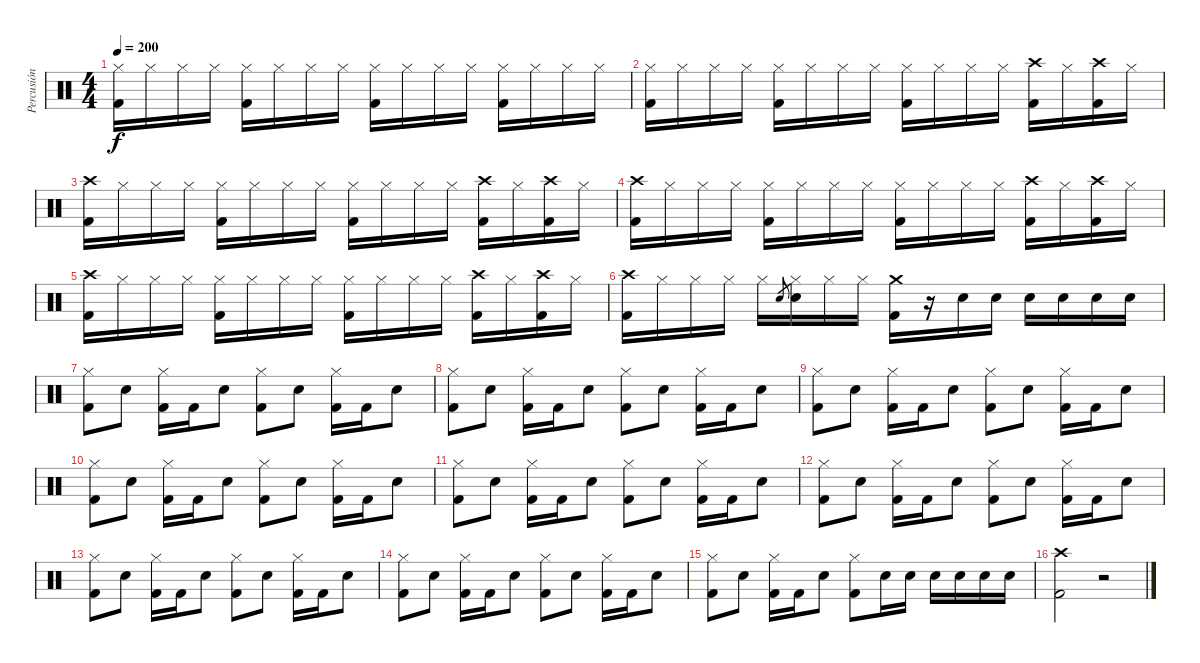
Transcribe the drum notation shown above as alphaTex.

\track ("Percusión" "Percusión") {instrument percussion}
\staff {score}
\articulation defaults
\ts (4 4)
\tempo 200
\clef neutral
\ks c
("Hi-Hat (closed)" "Kick (hit) 2").16{dy f} "Hi-Hat (closed)".16 "Hi-Hat (closed)".16 "Hi-Hat (closed)".16 ("Hi-Hat (closed)" "Kick (hit) 2").16 "Hi-Hat (closed)".16 "Hi-Hat (closed)".16 "Hi-Hat (closed)".16 ("Hi-Hat (closed)" "Kick (hit) 2").16 "Hi-Hat (closed)".16 "Hi-Hat (closed)".16 "Hi-Hat (closed)".16 ("Hi-Hat (closed)" "Kick (hit) 2").16 "Hi-Hat (closed)".16 "Hi-Hat (closed)".16 "Hi-Hat (closed)".16 |
("Hi-Hat (closed)" "Kick (hit) 2").16 "Hi-Hat (closed)".16 "Hi-Hat (closed)".16 "Hi-Hat (closed)".16 ("Hi-Hat (closed)" "Kick (hit) 2").16 "Hi-Hat (closed)".16 "Hi-Hat (closed)".16 "Hi-Hat (closed)".16 ("Hi-Hat (closed)" "Kick (hit) 2").16 "Hi-Hat (closed)".16 "Hi-Hat (closed)".16 "Hi-Hat (closed)".16 ("Crash high (hit)" "Kick (hit) 2").16 "Hi-Hat (closed)".16 ("Crash high (hit)" "Kick (hit) 2").16 "Hi-Hat (closed)".16 |
("Crash high (hit)" "Kick (hit) 2").16 "Hi-Hat (closed)".16 "Hi-Hat (closed)".16 "Hi-Hat (closed)".16 ("Hi-Hat (closed)" "Kick (hit) 2").16 "Hi-Hat (closed)".16 "Hi-Hat (closed)".16 "Hi-Hat (closed)".16 ("Hi-Hat (closed)" "Kick (hit) 2").16 "Hi-Hat (closed)".16 "Hi-Hat (closed)".16 "Hi-Hat (closed)".16 ("Crash high (hit)" "Kick (hit) 2").16 "Hi-Hat (closed)".16 ("Crash high (hit)" "Kick (hit) 2").16 "Hi-Hat (closed)".16 |
("Crash high (hit)" "Kick (hit) 2").16 "Hi-Hat (closed)".16 "Hi-Hat (closed)".16 "Hi-Hat (closed)".16 ("Hi-Hat (closed)" "Kick (hit) 2").16 "Hi-Hat (closed)".16 "Hi-Hat (closed)".16 "Hi-Hat (closed)".16 ("Hi-Hat (closed)" "Kick (hit) 2").16 "Hi-Hat (closed)".16 "Hi-Hat (closed)".16 "Hi-Hat (closed)".16 ("Crash high (hit)" "Kick (hit) 2").16 "Hi-Hat (closed)".16 ("Crash high (hit)" "Kick (hit) 2").16 "Hi-Hat (closed)".16 |
("Crash high (hit)" "Kick (hit) 2").16 "Hi-Hat (closed)".16 "Hi-Hat (closed)".16 "Hi-Hat (closed)".16 ("Hi-Hat (closed)" "Kick (hit) 2").16 "Hi-Hat (closed)".16 "Hi-Hat (closed)".16 "Hi-Hat (closed)".16 ("Hi-Hat (closed)" "Kick (hit) 2").16 "Hi-Hat (closed)".16 "Hi-Hat (closed)".16 "Hi-Hat (closed)".16 ("Crash high (hit)" "Kick (hit) 2").16 "Hi-Hat (closed)".16 ("Crash high (hit)" "Kick (hit) 2").16 "Hi-Hat (closed)".16 |
("Crash high (hit)" "Kick (hit) 2").16 "Hi-Hat (closed)".16 "Hi-Hat (closed)".16 "Hi-Hat (closed)".16 "Hi-Hat (closed)".16 "Electric Snare (hit)".8{gr} ("Hi-Hat (closed)" "Electric Snare (hit)").16 "Hi-Hat (closed)".16 "Hi-Hat (closed)".16 ("Crash medium (hit)" "Kick (hit) 2").16 r.16 "Electric Snare (hit)".16 "Electric Snare (hit)".16 "Electric Snare (hit)".16 "Electric Snare (hit)".16 "Electric Snare (hit)".16 "Electric Snare (hit)".16 |
("Hi-Hat (closed)" "Kick (hit) 2").8 "Electric Snare (hit)".8 ("Hi-Hat (closed)" "Kick (hit) 2").16 "Kick (hit) 2".16 "Electric Snare (hit)".8 ("Hi-Hat (closed)" "Kick (hit) 2").8 "Electric Snare (hit)".8 ("Hi-Hat (closed)" "Kick (hit) 2").16 "Kick (hit) 2".16 "Electric Snare (hit)".8 |
("Hi-Hat (closed)" "Kick (hit) 2").8 "Electric Snare (hit)".8 ("Hi-Hat (closed)" "Kick (hit) 2").16 "Kick (hit) 2".16 "Electric Snare (hit)".8 ("Hi-Hat (closed)" "Kick (hit) 2").8 "Electric Snare (hit)".8 ("Hi-Hat (closed)" "Kick (hit) 2").16 "Kick (hit) 2".16 "Electric Snare (hit)".8 |
("Hi-Hat (closed)" "Kick (hit) 2").8 "Electric Snare (hit)".8 ("Hi-Hat (closed)" "Kick (hit) 2").16 "Kick (hit) 2".16 "Electric Snare (hit)".8 ("Hi-Hat (closed)" "Kick (hit) 2").8 "Electric Snare (hit)".8 ("Hi-Hat (closed)" "Kick (hit) 2").16 "Kick (hit) 2".16 "Electric Snare (hit)".8 |
("Hi-Hat (closed)" "Kick (hit) 2").8 "Electric Snare (hit)".8 ("Hi-Hat (closed)" "Kick (hit) 2").16 "Kick (hit) 2".16 "Electric Snare (hit)".8 ("Hi-Hat (closed)" "Kick (hit) 2").8 "Electric Snare (hit)".8 ("Hi-Hat (closed)" "Kick (hit) 2").16 "Kick (hit) 2".16 "Electric Snare (hit)".8 |
("Hi-Hat (closed)" "Kick (hit) 2").8 "Electric Snare (hit)".8 ("Hi-Hat (closed)" "Kick (hit) 2").16 "Kick (hit) 2".16 "Electric Snare (hit)".8 ("Hi-Hat (closed)" "Kick (hit) 2").8 "Electric Snare (hit)".8 ("Hi-Hat (closed)" "Kick (hit) 2").16 "Kick (hit) 2".16 "Electric Snare (hit)".8 |
("Hi-Hat (closed)" "Kick (hit) 2").8 "Electric Snare (hit)".8 ("Hi-Hat (closed)" "Kick (hit) 2").16 "Kick (hit) 2".16 "Electric Snare (hit)".8 ("Hi-Hat (closed)" "Kick (hit) 2").8 "Electric Snare (hit)".8 ("Hi-Hat (closed)" "Kick (hit) 2").16 "Kick (hit) 2".16 "Electric Snare (hit)".8 |
("Hi-Hat (closed)" "Kick (hit) 2").8 "Electric Snare (hit)".8 ("Hi-Hat (closed)" "Kick (hit) 2").16 "Kick (hit) 2".16 "Electric Snare (hit)".8 ("Hi-Hat (closed)" "Kick (hit) 2").8 "Electric Snare (hit)".8 ("Hi-Hat (closed)" "Kick (hit) 2").16 "Kick (hit) 2".16 "Electric Snare (hit)".8 |
("Hi-Hat (closed)" "Kick (hit) 2").8 "Electric Snare (hit)".8 ("Hi-Hat (closed)" "Kick (hit) 2").16 "Kick (hit) 2".16 "Electric Snare (hit)".8 ("Hi-Hat (closed)" "Kick (hit) 2").8 "Electric Snare (hit)".8 ("Hi-Hat (closed)" "Kick (hit) 2").16 "Kick (hit) 2".16 "Electric Snare (hit)".8 |
("Hi-Hat (closed)" "Kick (hit) 2").8 "Electric Snare (hit)".8 ("Hi-Hat (closed)" "Kick (hit) 2").16 "Kick (hit) 2".16 "Electric Snare (hit)".8 ("Hi-Hat (closed)" "Kick (hit) 2").8 "Electric Snare (hit)".16 "Electric Snare (hit)".16 "Electric Snare (hit)".16 "Electric Snare (hit)".16 "Electric Snare (hit)".16 "Electric Snare (hit)".16 |
("Crash high (hit)" "Kick (hit) 2").2 r.2
